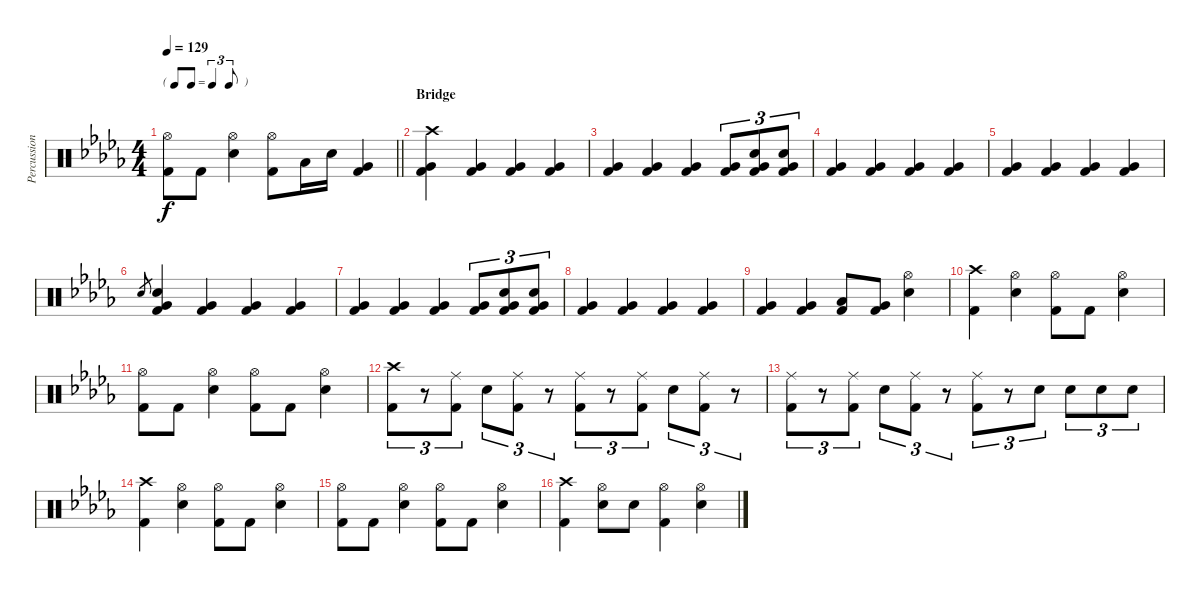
\track ("Percussion" "Percussion") {instrument percussion}
\staff {score}
\articulation defaults
\ts (4 4)
\tf triplet8th
\tempo 129
\clef neutral
\barLineRight lightlight
\ks db
("Hi-Hat (open)" "Kick (hit) 2").8{dy f} "Kick (hit) 2".8 ("Hi-Hat (open)" "Electric Snare (hit)").4 ("Hi-Hat (open)" "Kick (hit) 2").8 "Low Tom (hit)".16 "Electric Snare (hit)".16 ("Very Low Tom (hit)" "Kick (hit) 2").4 |
\section ("" "Bridge")
("Crash high (hit)" "Very Low Tom (hit)" "Kick (hit) 2").4 ("Very Low Tom (hit)" "Kick (hit) 2").4 ("Very Low Tom (hit)" "Kick (hit) 2").4 ("Very Low Tom (hit)" "Kick (hit) 2").4 |
("Very Low Tom (hit)" "Kick (hit) 2").4 ("Very Low Tom (hit)" "Kick (hit) 2").4 ("Very Low Tom (hit)" "Kick (hit) 2").4 ("Very Low Tom (hit)" "Kick (hit) 2").8{tu (3 2)} ("Very Low Tom (hit)" "Electric Snare (hit)" "Kick (hit) 2").8{tu (3 2)} ("Very Low Tom (hit)" "Electric Snare (hit)" "Kick (hit) 2").8{tu (3 2)} |
("Very Low Tom (hit)" "Kick (hit) 2").4 ("Very Low Tom (hit)" "Kick (hit) 2").4 ("Very Low Tom (hit)" "Kick (hit) 2").4 ("Very Low Tom (hit)" "Kick (hit) 2").4 |
("Very Low Tom (hit)" "Kick (hit) 2").4 ("Very Low Tom (hit)" "Kick (hit) 2").4 ("Very Low Tom (hit)" "Kick (hit) 2").4 ("Very Low Tom (hit)" "Kick (hit) 2").4 |
"Snare (hit) 2".8{gr} ("Very Low Tom (hit)" "Electric Snare (hit)" "Kick (hit) 2").4 ("Very Low Tom (hit)" "Kick (hit) 2").4 ("Very Low Tom (hit)" "Kick (hit) 2").4 ("Very Low Tom (hit)" "Kick (hit) 2").4 |
("Very Low Tom (hit)" "Kick (hit) 2").4 ("Very Low Tom (hit)" "Kick (hit) 2").4 ("Very Low Tom (hit)" "Kick (hit) 2").4 ("Very Low Tom (hit)" "Kick (hit) 2").8{tu (3 2)} ("Very Low Tom (hit)" "Electric Snare (hit)" "Kick (hit) 2").8{tu (3 2)} ("Very Low Tom (hit)" "Electric Snare (hit)" "Kick (hit) 2").8{tu (3 2)} |
("Very Low Tom (hit)" "Kick (hit) 2").4 ("Very Low Tom (hit)" "Kick (hit) 2").4 ("Very Low Tom (hit)" "Kick (hit) 2").4 ("Very Low Tom (hit)" "Kick (hit) 2").4 |
("Very Low Tom (hit)" "Kick (hit) 2").4 ("Very Low Tom (hit)" "Kick (hit) 2").4 ("Low Tom (hit)" "Kick (hit) 2").8 ("Very Low Tom (hit)" "Kick (hit) 2").8 ("Hi-Hat (open)" "Electric Snare (hit)").4 |
("Crash high (hit)" "Kick (hit) 2").4 ("Hi-Hat (open)" "Electric Snare (hit)").4 ("Hi-Hat (open)" "Kick (hit) 2").8 "Kick (hit) 2".8 ("Hi-Hat (open)" "Electric Snare (hit)").4 |
("Hi-Hat (open)" "Kick (hit) 2").8 "Kick (hit) 2".8 ("Hi-Hat (open)" "Electric Snare (hit)").4 ("Hi-Hat (open)" "Kick (hit) 2").8 "Kick (hit) 2".8 ("Hi-Hat (open)" "Electric Snare (hit)").4 |
("Crash high (hit)" "Kick (hit) 2").8{tu (3 2)} r.8{tu (3 2)} ("Ride (middle)" "Kick (hit) 2").8{tu (3 2)} "Electric Snare (hit)".8{tu (3 2)} ("Ride (middle)" "Kick (hit) 2").8{tu (3 2)} r.8{tu (3 2)} ("Ride (middle)" "Kick (hit) 2").8{tu (3 2)} r.8{tu (3 2)} ("Ride (middle)" "Kick (hit) 2").8{tu (3 2)} "Electric Snare (hit)".8{tu (3 2)} ("Ride (middle)" "Kick (hit) 2").8{tu (3 2)} r.8{tu (3 2)} |
("Ride (middle)" "Kick (hit) 2").8{tu (3 2)} r.8{tu (3 2)} ("Ride (middle)" "Kick (hit) 2").8{tu (3 2)} "Electric Snare (hit)".8{tu (3 2)} ("Ride (middle)" "Kick (hit) 2").8{tu (3 2)} r.8{tu (3 2)} ("Ride (middle)" "Kick (hit) 2").8{tu (3 2)} r.8{tu (3 2)} "Electric Snare (hit)".8{tu (3 2)} "Electric Snare (hit)".8{tu (3 2)} "Electric Snare (hit)".8{tu (3 2)} "Electric Snare (hit)".8{tu (3 2)} |
("Crash high (hit)" "Kick (hit) 2").4 ("Hi-Hat (open)" "Electric Snare (hit)").4 ("Hi-Hat (open)" "Kick (hit) 2").8 "Kick (hit) 2".8 ("Hi-Hat (open)" "Electric Snare (hit)").4 |
("Hi-Hat (open)" "Kick (hit) 2").8 "Kick (hit) 2".8 ("Hi-Hat (open)" "Electric Snare (hit)").4 ("Hi-Hat (open)" "Kick (hit) 2").8 "Kick (hit) 2".8 ("Hi-Hat (open)" "Electric Snare (hit)").4 |
("Crash high (hit)" "Kick (hit) 2").4 ("Hi-Hat (open)" "Electric Snare (hit)").8 "Electric Snare (hit)".8 ("Hi-Hat (open)" "Kick (hit) 2").4 ("Hi-Hat (open)" "Electric Snare (hit)").4
